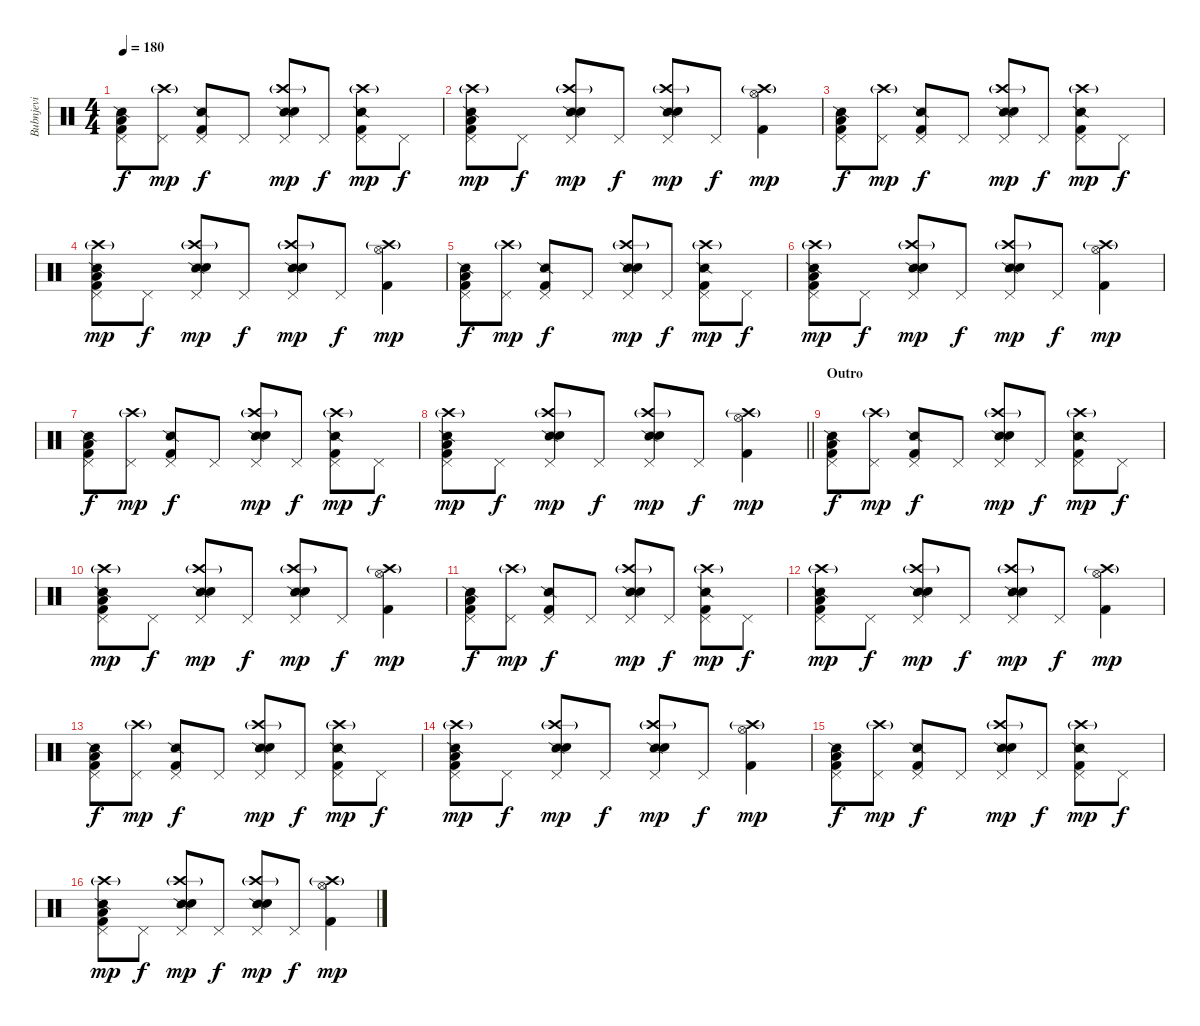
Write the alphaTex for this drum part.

\track ("Bubnjevi" "Bubnjevi") {instrument percussion}
\staff {score}
\articulation defaults
\ts (4 4)
\tempo 180
\clef neutral
\ks c
("Snare (side stick) 2" "Pedal Hi-Hat (hit)" "Low Tom (hit)" "Kick (hit) 2").8{dy f} ("Crash high (hit)"{g} "Pedal Hi-Hat (hit)").8{dy mp} ("Snare (side stick) 2" "Pedal Hi-Hat (hit)" "Kick (hit) 2").8{dy f} "Pedal Hi-Hat (hit)".8 ("Crash high (hit)"{g} "Snare (side stick) 2" "Pedal Hi-Hat (hit)" "Electric Snare (hit)").8{dy mp} "Pedal Hi-Hat (hit)".8{dy f} ("Crash high (hit)"{g} "Snare (side stick) 2" "Pedal Hi-Hat (hit)" "Kick (hit) 2").8{dy mp} "Pedal Hi-Hat (hit)".8{dy f} |
("Crash high (hit)"{g} "Snare (side stick) 2" "Pedal Hi-Hat (hit)" "Low Tom (hit)" "Kick (hit) 2").8{dy mp} "Pedal Hi-Hat (hit)".8{dy f} ("Crash high (hit)"{g} "Snare (side stick) 2" "Pedal Hi-Hat (hit)" "Hand Clap (hit)").8{dy mp} "Pedal Hi-Hat (hit)".8{dy f} ("Crash high (hit)"{g} "Snare (side stick) 2" "Pedal Hi-Hat (hit)" "Electric Snare (hit)").8{dy mp} "Pedal Hi-Hat (hit)".8{dy f} ("Crash high (hit)"{g} "Hi-Hat (open)" "Kick (hit) 2").4{dy mp} |
("Snare (side stick) 2" "Pedal Hi-Hat (hit)" "Low Tom (hit)" "Kick (hit) 2").8{dy f} ("Crash high (hit)"{g} "Pedal Hi-Hat (hit)").8{dy mp} ("Snare (side stick) 2" "Pedal Hi-Hat (hit)" "Kick (hit) 2").8{dy f} "Pedal Hi-Hat (hit)".8 ("Crash high (hit)"{g} "Snare (side stick) 2" "Pedal Hi-Hat (hit)" "Electric Snare (hit)").8{dy mp} "Pedal Hi-Hat (hit)".8{dy f} ("Crash high (hit)"{g} "Snare (side stick) 2" "Pedal Hi-Hat (hit)" "Kick (hit) 2").8{dy mp} "Pedal Hi-Hat (hit)".8{dy f} |
("Crash high (hit)"{g} "Snare (side stick) 2" "Pedal Hi-Hat (hit)" "Low Tom (hit)" "Kick (hit) 2").8{dy mp} "Pedal Hi-Hat (hit)".8{dy f} ("Crash high (hit)"{g} "Snare (side stick) 2" "Pedal Hi-Hat (hit)" "Hand Clap (hit)").8{dy mp} "Pedal Hi-Hat (hit)".8{dy f} ("Crash high (hit)"{g} "Snare (side stick) 2" "Pedal Hi-Hat (hit)" "Electric Snare (hit)").8{dy mp} "Pedal Hi-Hat (hit)".8{dy f} ("Crash high (hit)"{g} "Hi-Hat (open)" "Kick (hit) 2").4{dy mp} |
("Snare (side stick) 2" "Pedal Hi-Hat (hit)" "Low Tom (hit)" "Kick (hit) 2").8{dy f} ("Crash high (hit)"{g} "Pedal Hi-Hat (hit)").8{dy mp} ("Snare (side stick) 2" "Pedal Hi-Hat (hit)" "Kick (hit) 2").8{dy f} "Pedal Hi-Hat (hit)".8 ("Crash high (hit)"{g} "Snare (side stick) 2" "Pedal Hi-Hat (hit)" "Electric Snare (hit)").8{dy mp} "Pedal Hi-Hat (hit)".8{dy f} ("Crash high (hit)"{g} "Snare (side stick) 2" "Pedal Hi-Hat (hit)" "Kick (hit) 2").8{dy mp} "Pedal Hi-Hat (hit)".8{dy f} |
("Crash high (hit)"{g} "Snare (side stick) 2" "Pedal Hi-Hat (hit)" "Low Tom (hit)" "Kick (hit) 2").8{dy mp} "Pedal Hi-Hat (hit)".8{dy f} ("Crash high (hit)"{g} "Snare (side stick) 2" "Pedal Hi-Hat (hit)" "Hand Clap (hit)").8{dy mp} "Pedal Hi-Hat (hit)".8{dy f} ("Crash high (hit)"{g} "Snare (side stick) 2" "Pedal Hi-Hat (hit)" "Electric Snare (hit)").8{dy mp} "Pedal Hi-Hat (hit)".8{dy f} ("Crash high (hit)"{g} "Hi-Hat (open)" "Kick (hit) 2").4{dy mp} |
("Snare (side stick) 2" "Pedal Hi-Hat (hit)" "Low Tom (hit)" "Kick (hit) 2").8{dy f} ("Crash high (hit)"{g} "Pedal Hi-Hat (hit)").8{dy mp} ("Snare (side stick) 2" "Pedal Hi-Hat (hit)" "Kick (hit) 2").8{dy f} "Pedal Hi-Hat (hit)".8 ("Crash high (hit)"{g} "Snare (side stick) 2" "Pedal Hi-Hat (hit)" "Electric Snare (hit)").8{dy mp} "Pedal Hi-Hat (hit)".8{dy f} ("Crash high (hit)"{g} "Snare (side stick) 2" "Pedal Hi-Hat (hit)" "Kick (hit) 2").8{dy mp} "Pedal Hi-Hat (hit)".8{dy f} |
\barLineRight lightlight
("Crash high (hit)"{g} "Snare (side stick) 2" "Pedal Hi-Hat (hit)" "Low Tom (hit)" "Kick (hit) 2").8{dy mp} "Pedal Hi-Hat (hit)".8{dy f} ("Crash high (hit)"{g} "Snare (side stick) 2" "Pedal Hi-Hat (hit)" "Hand Clap (hit)").8{dy mp} "Pedal Hi-Hat (hit)".8{dy f} ("Crash high (hit)"{g} "Snare (side stick) 2" "Pedal Hi-Hat (hit)" "Electric Snare (hit)").8{dy mp} "Pedal Hi-Hat (hit)".8{dy f} ("Crash high (hit)"{g} "Hi-Hat (open)" "Kick (hit) 2").4{dy mp} |
\section ("" "Outro")
("Snare (side stick) 2" "Pedal Hi-Hat (hit)" "Low Tom (hit)" "Kick (hit) 2").8{dy f} ("Crash high (hit)"{g} "Pedal Hi-Hat (hit)").8{dy mp} ("Snare (side stick) 2" "Pedal Hi-Hat (hit)" "Kick (hit) 2").8{dy f} "Pedal Hi-Hat (hit)".8 ("Crash high (hit)"{g} "Snare (side stick) 2" "Pedal Hi-Hat (hit)" "Electric Snare (hit)").8{dy mp} "Pedal Hi-Hat (hit)".8{dy f} ("Crash high (hit)"{g} "Snare (side stick) 2" "Pedal Hi-Hat (hit)" "Kick (hit) 2").8{dy mp} "Pedal Hi-Hat (hit)".8{dy f} |
("Crash high (hit)"{g} "Snare (side stick) 2" "Pedal Hi-Hat (hit)" "Low Tom (hit)" "Kick (hit) 2").8{dy mp} "Pedal Hi-Hat (hit)".8{dy f} ("Crash high (hit)"{g} "Snare (side stick) 2" "Pedal Hi-Hat (hit)" "Hand Clap (hit)").8{dy mp} "Pedal Hi-Hat (hit)".8{dy f} ("Crash high (hit)"{g} "Snare (side stick) 2" "Pedal Hi-Hat (hit)" "Electric Snare (hit)").8{dy mp} "Pedal Hi-Hat (hit)".8{dy f} ("Crash high (hit)"{g} "Hi-Hat (open)" "Kick (hit) 2").4{dy mp} |
("Snare (side stick) 2" "Pedal Hi-Hat (hit)" "Low Tom (hit)" "Kick (hit) 2").8{dy f} ("Crash high (hit)"{g} "Pedal Hi-Hat (hit)").8{dy mp} ("Snare (side stick) 2" "Pedal Hi-Hat (hit)" "Kick (hit) 2").8{dy f} "Pedal Hi-Hat (hit)".8 ("Crash high (hit)"{g} "Snare (side stick) 2" "Pedal Hi-Hat (hit)" "Electric Snare (hit)").8{dy mp} "Pedal Hi-Hat (hit)".8{dy f} ("Crash high (hit)"{g} "Snare (side stick) 2" "Pedal Hi-Hat (hit)" "Kick (hit) 2").8{dy mp} "Pedal Hi-Hat (hit)".8{dy f} |
("Crash high (hit)"{g} "Snare (side stick) 2" "Pedal Hi-Hat (hit)" "Low Tom (hit)" "Kick (hit) 2").8{dy mp} "Pedal Hi-Hat (hit)".8{dy f} ("Crash high (hit)"{g} "Snare (side stick) 2" "Pedal Hi-Hat (hit)" "Hand Clap (hit)").8{dy mp} "Pedal Hi-Hat (hit)".8{dy f} ("Crash high (hit)"{g} "Snare (side stick) 2" "Pedal Hi-Hat (hit)" "Electric Snare (hit)").8{dy mp} "Pedal Hi-Hat (hit)".8{dy f} ("Crash high (hit)"{g} "Hi-Hat (open)" "Kick (hit) 2").4{dy mp} |
("Snare (side stick) 2" "Pedal Hi-Hat (hit)" "Low Tom (hit)" "Kick (hit) 2").8{dy f} ("Crash high (hit)"{g} "Pedal Hi-Hat (hit)").8{dy mp} ("Snare (side stick) 2" "Pedal Hi-Hat (hit)" "Kick (hit) 2").8{dy f} "Pedal Hi-Hat (hit)".8 ("Crash high (hit)"{g} "Snare (side stick) 2" "Pedal Hi-Hat (hit)" "Electric Snare (hit)").8{dy mp} "Pedal Hi-Hat (hit)".8{dy f} ("Crash high (hit)"{g} "Snare (side stick) 2" "Pedal Hi-Hat (hit)" "Kick (hit) 2").8{dy mp} "Pedal Hi-Hat (hit)".8{dy f} |
("Crash high (hit)"{g} "Snare (side stick) 2" "Pedal Hi-Hat (hit)" "Low Tom (hit)" "Kick (hit) 2").8{dy mp} "Pedal Hi-Hat (hit)".8{dy f} ("Crash high (hit)"{g} "Snare (side stick) 2" "Pedal Hi-Hat (hit)" "Hand Clap (hit)").8{dy mp} "Pedal Hi-Hat (hit)".8{dy f} ("Crash high (hit)"{g} "Snare (side stick) 2" "Pedal Hi-Hat (hit)" "Electric Snare (hit)").8{dy mp} "Pedal Hi-Hat (hit)".8{dy f} ("Crash high (hit)"{g} "Hi-Hat (open)" "Kick (hit) 2").4{dy mp} |
("Snare (side stick) 2" "Pedal Hi-Hat (hit)" "Low Tom (hit)" "Kick (hit) 2").8{dy f} ("Crash high (hit)"{g} "Pedal Hi-Hat (hit)").8{dy mp} ("Snare (side stick) 2" "Pedal Hi-Hat (hit)" "Kick (hit) 2").8{dy f} "Pedal Hi-Hat (hit)".8 ("Crash high (hit)"{g} "Snare (side stick) 2" "Pedal Hi-Hat (hit)" "Electric Snare (hit)").8{dy mp} "Pedal Hi-Hat (hit)".8{dy f} ("Crash high (hit)"{g} "Snare (side stick) 2" "Pedal Hi-Hat (hit)" "Kick (hit) 2").8{dy mp} "Pedal Hi-Hat (hit)".8{dy f} |
("Crash high (hit)"{g} "Snare (side stick) 2" "Pedal Hi-Hat (hit)" "Low Tom (hit)" "Kick (hit) 2").8{dy mp} "Pedal Hi-Hat (hit)".8{dy f} ("Crash high (hit)"{g} "Snare (side stick) 2" "Pedal Hi-Hat (hit)" "Hand Clap (hit)").8{dy mp} "Pedal Hi-Hat (hit)".8{dy f} ("Crash high (hit)"{g} "Snare (side stick) 2" "Pedal Hi-Hat (hit)" "Electric Snare (hit)").8{dy mp} "Pedal Hi-Hat (hit)".8{dy f} ("Crash high (hit)"{g} "Hi-Hat (open)" "Kick (hit) 2").4{dy mp}
